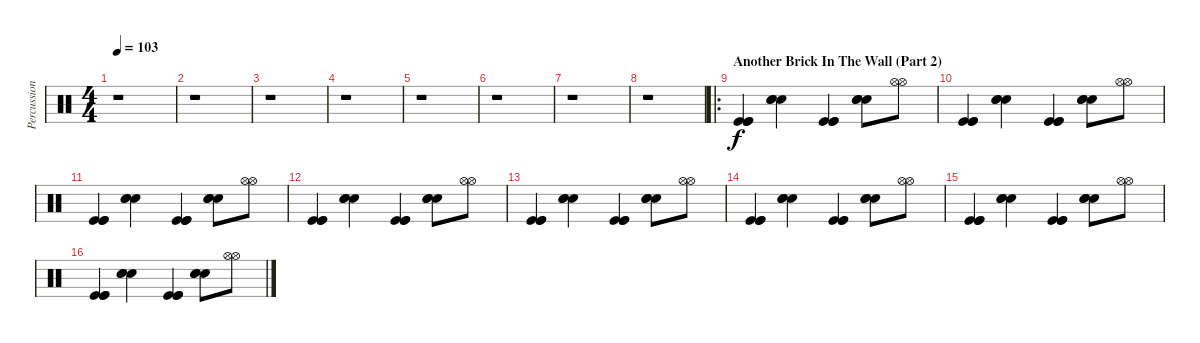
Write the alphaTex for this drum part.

\track ("Percussion (Wall prt. 2)" "Percussion") {instrument percussion}
\staff {score}
\articulation defaults
\ts (4 4)
\tempo 103
\clef neutral
\ks c
r.1{dy f} |
r.1 |
r.1 |
r.1 |
r.1 |
r.1 |
r.1 |
r.1 |
\ro
\section ("" "Another Brick In The Wall (Part 2)")
("Kick (hit)" "Kick (hit)" "Kick (hit)").4 ("Snare (hit) 2" "Snare (hit) 2" "Snare (hit) 2").4 ("Kick (hit)" "Kick (hit)" "Kick (hit)").4 ("Snare (hit) 2" "Snare (hit) 2" "Snare (hit) 2").8 ("Hi-Hat (open)" "Hi-Hat (open)").8 |
("Kick (hit)" "Kick (hit)" "Kick (hit)").4 ("Snare (hit) 2" "Snare (hit) 2" "Snare (hit) 2").4 ("Kick (hit)" "Kick (hit)" "Kick (hit)").4 ("Snare (hit) 2" "Snare (hit) 2" "Snare (hit) 2").8 ("Hi-Hat (open)" "Hi-Hat (open)").8 |
("Kick (hit)" "Kick (hit)" "Kick (hit)").4 ("Snare (hit) 2" "Snare (hit) 2" "Snare (hit) 2").4 ("Kick (hit)" "Kick (hit)" "Kick (hit)").4 ("Snare (hit) 2" "Snare (hit) 2" "Snare (hit) 2").8 ("Hi-Hat (open)" "Hi-Hat (open)").8 |
("Kick (hit)" "Kick (hit)" "Kick (hit)").4 ("Snare (hit) 2" "Snare (hit) 2" "Snare (hit) 2").4 ("Kick (hit)" "Kick (hit)" "Kick (hit)").4 ("Snare (hit) 2" "Snare (hit) 2" "Snare (hit) 2").8 ("Hi-Hat (open)" "Hi-Hat (open)").8 |
("Kick (hit)" "Kick (hit)" "Kick (hit)").4 ("Snare (hit) 2" "Snare (hit) 2" "Snare (hit) 2").4 ("Kick (hit)" "Kick (hit)" "Kick (hit)").4 ("Snare (hit) 2" "Snare (hit) 2" "Snare (hit) 2").8 ("Hi-Hat (open)" "Hi-Hat (open)").8 |
("Kick (hit)" "Kick (hit)" "Kick (hit)").4 ("Snare (hit) 2" "Snare (hit) 2" "Snare (hit) 2").4 ("Kick (hit)" "Kick (hit)" "Kick (hit)").4 ("Snare (hit) 2" "Snare (hit) 2" "Snare (hit) 2").8 ("Hi-Hat (open)" "Hi-Hat (open)").8 |
("Kick (hit)" "Kick (hit)" "Kick (hit)").4 ("Snare (hit) 2" "Snare (hit) 2" "Snare (hit) 2").4 ("Kick (hit)" "Kick (hit)" "Kick (hit)").4 ("Snare (hit) 2" "Snare (hit) 2" "Snare (hit) 2").8 ("Hi-Hat (open)" "Hi-Hat (open)").8 |
("Kick (hit)" "Kick (hit)" "Kick (hit)").4 ("Snare (hit) 2" "Snare (hit) 2" "Snare (hit) 2").4 ("Kick (hit)" "Kick (hit)" "Kick (hit)").4 ("Snare (hit) 2" "Snare (hit) 2" "Snare (hit) 2").8 ("Hi-Hat (open)" "Hi-Hat (open)").8
